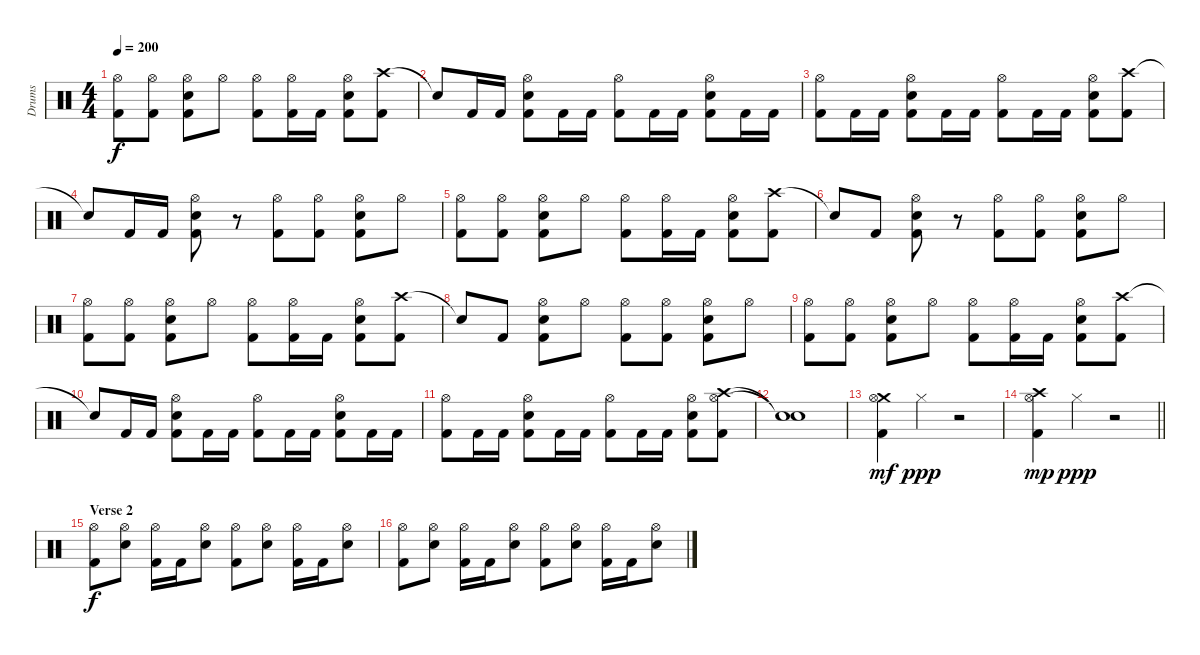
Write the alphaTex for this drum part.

\track ("Drums" "Drums") {instrument percussion}
\staff {score}
\articulation defaults
\ts (4 4)
\tempo 200
\clef neutral
\ks c
("Hi-Hat (open)" "Kick (hit) 2").8{dy f} ("Hi-Hat (open)" "Kick (hit) 2").8 ("Hi-Hat (open)" "Snare (hit) 2" "Kick (hit) 2").8 "Hi-Hat (open)".8 ("Hi-Hat (open)" "Kick (hit) 2").8 ("Hi-Hat (open)" "Kick (hit) 2").16 "Kick (hit) 2".16 ("Hi-Hat (open)" "Snare (hit) 2" "Kick (hit) 2").8 ("Crash high (hit)" "Kick (hit) 2").8 |
"Snare (hit)"{t}.8 "Kick (hit) 2".16 "Kick (hit) 2".16 ("Hi-Hat (open)" "Snare (hit) 2" "Kick (hit) 2").8 "Kick (hit) 2".16 "Kick (hit) 2".16 ("Hi-Hat (open)" "Kick (hit) 2").8 "Kick (hit) 2".16 "Kick (hit) 2".16 ("Hi-Hat (open)" "Snare (hit) 2" "Kick (hit) 2").8 "Kick (hit) 2".16 "Kick (hit) 2".16 |
("Hi-Hat (open)" "Kick (hit) 2").8 "Kick (hit) 2".16 "Kick (hit) 2".16 ("Hi-Hat (open)" "Snare (hit) 2" "Kick (hit) 2").8 "Kick (hit) 2".16 "Kick (hit) 2".16 ("Hi-Hat (open)" "Kick (hit) 2").8 "Kick (hit) 2".16 "Kick (hit) 2".16 ("Hi-Hat (open)" "Snare (hit) 2" "Kick (hit) 2").8 ("Crash high (hit)" "Kick (hit) 2").8 |
"Snare (hit)"{t}.8 "Kick (hit) 2".16 "Kick (hit) 2".16 ("Hi-Hat (open)" "Snare (hit) 2" "Kick (hit) 2").8 r.8 ("Hi-Hat (open)" "Kick (hit) 2").8 ("Hi-Hat (open)" "Kick (hit) 2").8 ("Hi-Hat (open)" "Snare (hit) 2" "Kick (hit) 2").8 "Hi-Hat (open)".8 |
("Hi-Hat (open)" "Kick (hit) 2").8 ("Hi-Hat (open)" "Kick (hit) 2").8 ("Hi-Hat (open)" "Snare (hit) 2" "Kick (hit) 2").8 "Hi-Hat (open)".8 ("Hi-Hat (open)" "Kick (hit) 2").8 ("Hi-Hat (open)" "Kick (hit) 2").16 "Kick (hit) 2".16 ("Hi-Hat (open)" "Snare (hit) 2" "Kick (hit) 2").8 ("Crash high (hit)" "Kick (hit) 2").8 |
"Snare (hit)"{t}.8 "Kick (hit) 2".8 ("Hi-Hat (open)" "Snare (hit) 2" "Kick (hit) 2").8 r.8 ("Hi-Hat (open)" "Kick (hit) 2").8 ("Hi-Hat (open)" "Kick (hit) 2").8 ("Hi-Hat (open)" "Snare (hit) 2" "Kick (hit) 2").8 "Hi-Hat (open)".8 |
("Hi-Hat (open)" "Kick (hit) 2").8 ("Hi-Hat (open)" "Kick (hit) 2").8 ("Hi-Hat (open)" "Snare (hit) 2" "Kick (hit) 2").8 "Hi-Hat (open)".8 ("Hi-Hat (open)" "Kick (hit) 2").8 ("Hi-Hat (open)" "Kick (hit) 2").16 "Kick (hit) 2".16 ("Hi-Hat (open)" "Snare (hit) 2" "Kick (hit) 2").8 ("Crash high (hit)" "Kick (hit) 2").8 |
"Snare (hit)"{t}.8 "Kick (hit) 2".8 ("Hi-Hat (open)" "Snare (hit) 2" "Kick (hit) 2").8 "Hi-Hat (open)".8 ("Hi-Hat (open)" "Kick (hit) 2").8 ("Hi-Hat (open)" "Kick (hit) 2").8 ("Hi-Hat (open)" "Snare (hit) 2" "Kick (hit) 2").8 "Hi-Hat (open)".8 |
("Hi-Hat (open)" "Kick (hit) 2").8 ("Hi-Hat (open)" "Kick (hit) 2").8 ("Hi-Hat (open)" "Snare (hit) 2" "Kick (hit) 2").8 "Hi-Hat (open)".8 ("Hi-Hat (open)" "Kick (hit) 2").8 ("Hi-Hat (open)" "Kick (hit) 2").16 "Kick (hit) 2".16 ("Hi-Hat (open)" "Snare (hit) 2" "Kick (hit) 2").8 ("Crash high (hit)" "Kick (hit) 2").8 |
"Snare (hit)"{t}.8 "Kick (hit) 2".16 "Kick (hit) 2".16 ("Hi-Hat (open)" "Snare (hit) 2" "Kick (hit) 2").8 "Kick (hit) 2".16 "Kick (hit) 2".16 ("Hi-Hat (open)" "Kick (hit) 2").8 "Kick (hit) 2".16 "Kick (hit) 2".16 ("Hi-Hat (open)" "Snare (hit) 2" "Kick (hit) 2").8 "Kick (hit) 2".16 "Kick (hit) 2".16 |
("Hi-Hat (open)" "Kick (hit) 2").8 "Kick (hit) 2".16 "Kick (hit) 2".16 ("Hi-Hat (open)" "Snare (hit) 2" "Kick (hit) 2").8 "Kick (hit) 2".16 "Kick (hit) 2".16 ("Hi-Hat (open)" "Kick (hit) 2").8 "Kick (hit) 2".16 "Kick (hit) 2".16 ("Hi-Hat (open)" "Snare (hit) 2" "Kick (hit) 2").8 ("Crash high (hit)" "Hi-Hat (open)" "Kick (hit) 2").8 |
("Snare (hit)"{t} "Snare (hit)"{t}).1 |
("Crash medium (hit)" "Hi-Hat (open)" "Kick (hit) 2").4{dy mf} "Hi-Hat (closed)".4{dy ppp} r.2 |
\barLineRight lightlight
("Crash high (hit)" "Hi-Hat (open)" "Kick (hit) 2").4{dy mp} "Hi-Hat (closed)".4{dy ppp} r.2 |
\section ("" "Verse 2")
("Hi-Hat (open)" "Kick (hit) 2").8{dy f} ("Hi-Hat (open)" "Snare (hit) 2").8 ("Hi-Hat (open)" "Kick (hit) 2").16 "Kick (hit) 2".16 ("Hi-Hat (open)" "Snare (hit) 2").8 ("Hi-Hat (open)" "Kick (hit) 2").8 ("Hi-Hat (open)" "Snare (hit) 2").8 ("Hi-Hat (open)" "Kick (hit) 2").16 "Kick (hit) 2".16 ("Hi-Hat (open)" "Snare (hit) 2").8 |
("Hi-Hat (open)" "Kick (hit) 2").8 ("Hi-Hat (open)" "Snare (hit) 2").8 ("Hi-Hat (open)" "Kick (hit) 2").16 "Kick (hit) 2".16 ("Hi-Hat (open)" "Snare (hit) 2").8 ("Hi-Hat (open)" "Kick (hit) 2").8 ("Hi-Hat (open)" "Snare (hit) 2").8 ("Hi-Hat (open)" "Kick (hit) 2").16 "Kick (hit) 2".16 ("Hi-Hat (open)" "Snare (hit) 2").8
